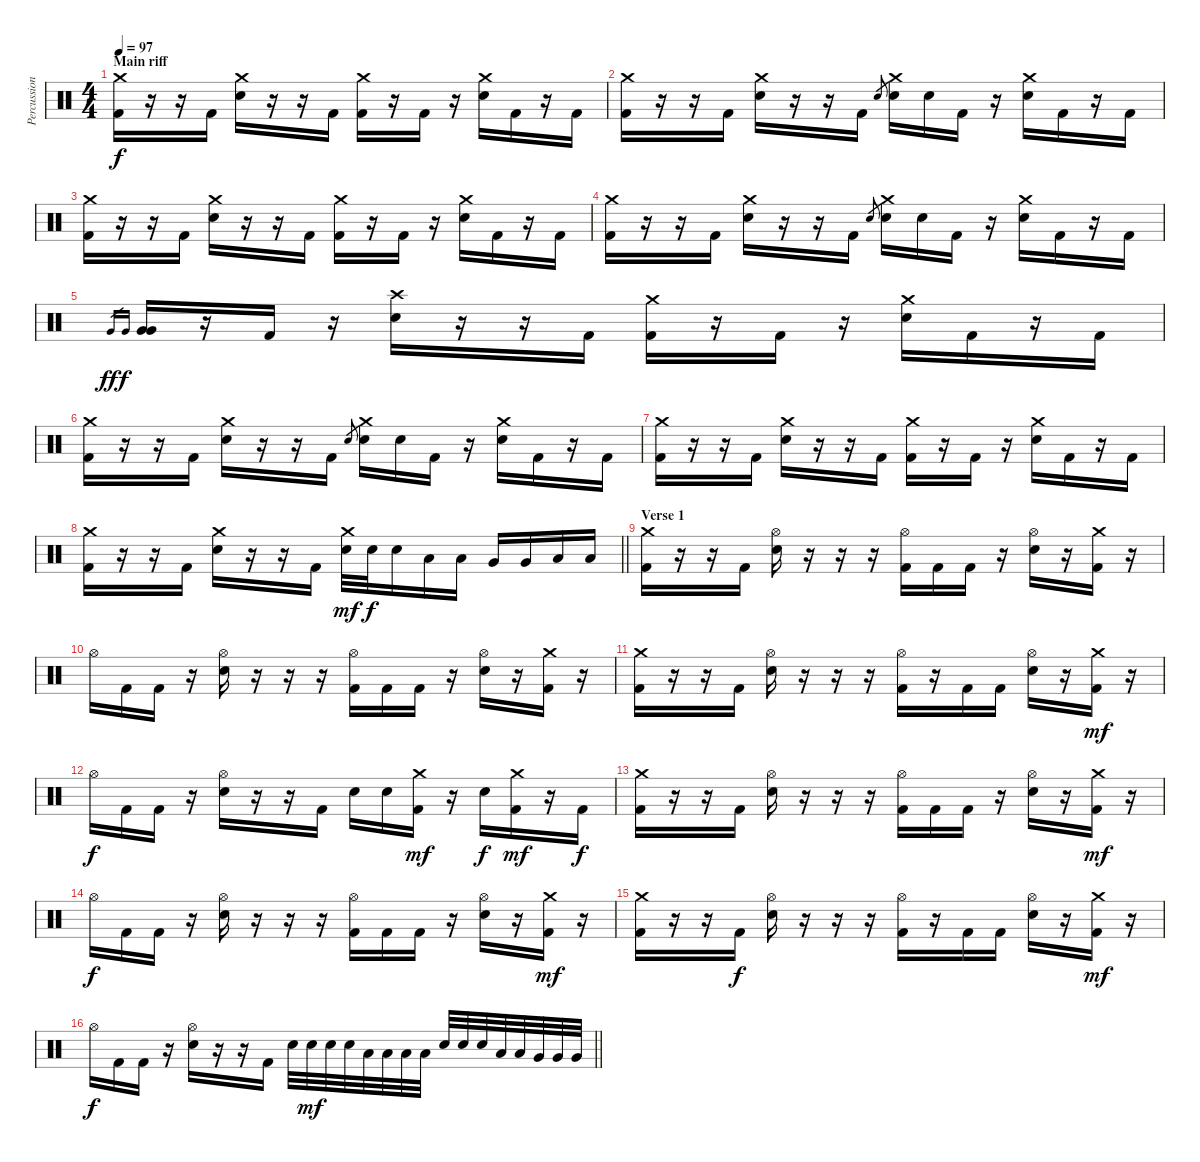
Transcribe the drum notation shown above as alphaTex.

\track ("Percussion" "Percussion") {instrument percussion}
\staff {score}
\articulation defaults
\ts (4 4)
\section ("" "Main riff")
\tempo 97
\clef neutral
\ks c
("Crash medium (hit)" "Kick (hit) 2").16{dy f} r.16 r.16 "Kick (hit) 2".16 ("Crash medium (hit)" "Electric Snare (hit)").16 r.16 r.16 "Kick (hit) 2".16 ("Crash medium (hit)" "Kick (hit) 2").16 r.16 "Kick (hit) 2".16 r.16 ("Crash medium (hit)" "Electric Snare (hit)").16 "Kick (hit) 2".16 r.16 "Kick (hit) 2".16 |
("Crash medium (hit)" "Kick (hit) 2").16 r.16 r.16 "Kick (hit) 2".16 ("Crash medium (hit)" "Electric Snare (hit)").16 r.16 r.16 "Kick (hit) 2".16 "Electric Snare (hit)".8{gr} ("Crash medium (hit)" "Electric Snare (hit)").16 "Electric Snare (hit)".16 "Kick (hit) 2".16 r.16 ("Crash medium (hit)" "Electric Snare (hit)").16 "Kick (hit) 2".16 r.16 "Kick (hit) 2".16 |
("Crash medium (hit)" "Kick (hit) 2").16 r.16 r.16 "Kick (hit) 2".16 ("Crash medium (hit)" "Electric Snare (hit)").16 r.16 r.16 "Kick (hit) 2".16 ("Crash medium (hit)" "Kick (hit) 2").16 r.16 "Kick (hit) 2".16 r.16 ("Crash medium (hit)" "Electric Snare (hit)").16 "Kick (hit) 2".16 r.16 "Kick (hit) 2".16 |
("Crash medium (hit)" "Kick (hit) 2").16 r.16 r.16 "Kick (hit) 2".16 ("Crash medium (hit)" "Electric Snare (hit)").16 r.16 r.16 "Kick (hit) 2".16 "Electric Snare (hit)".8{gr} ("Crash medium (hit)" "Electric Snare (hit)").16 "Electric Snare (hit)".16 "Kick (hit) 2".16 r.16 ("Crash medium (hit)" "Electric Snare (hit)").16 "Kick (hit) 2".16 r.16 "Kick (hit) 2".16 |
"Very Low Tom (hit)".16{gr dy ff} "Very Low Tom (hit)".16{gr dy f} ("Very Low Tom (hit)" "Very Low Tom (hit)").16 r.16 "Kick (hit) 2".16 r.16 ("Crash high (hit)" "Electric Snare (hit)").16 r.16 r.16 "Kick (hit) 2".16 ("Crash medium (hit)" "Kick (hit) 2").16 r.16 "Kick (hit) 2".16 r.16 ("Crash medium (hit)" "Electric Snare (hit)").16 "Kick (hit) 2".16 r.16 "Kick (hit) 2".16 |
("Crash medium (hit)" "Kick (hit) 2").16 r.16 r.16 "Kick (hit) 2".16 ("Crash medium (hit)" "Electric Snare (hit)").16 r.16 r.16 "Kick (hit) 2".16 "Electric Snare (hit)".8{gr} ("Crash medium (hit)" "Electric Snare (hit)").16 "Electric Snare (hit)".16 "Kick (hit) 2".16 r.16 ("Crash medium (hit)" "Electric Snare (hit)").16 "Kick (hit) 2".16 r.16 "Kick (hit) 2".16 |
("Crash medium (hit)" "Kick (hit) 2").16 r.16 r.16 "Kick (hit) 2".16 ("Crash medium (hit)" "Electric Snare (hit)").16 r.16 r.16 "Kick (hit) 2".16 ("Crash medium (hit)" "Kick (hit) 2").16 r.16 "Kick (hit) 2".16 r.16 ("Crash medium (hit)" "Electric Snare (hit)").16 "Kick (hit) 2".16 r.16 "Kick (hit) 2".16 |
\barLineRight lightlight
("Crash medium (hit)" "Kick (hit) 2").16 r.16 r.16 "Kick (hit) 2".16 ("Crash medium (hit)" "Electric Snare (hit)").16 r.16 r.16 "Kick (hit) 2".16 ("Crash medium (hit)" "Electric Snare (hit)").32{dy mf} "Electric Snare (hit)".32{dy f} "Electric Snare (hit)".16 "Low Tom (hit)".16 "Low Tom (hit)".16 "Very Low Tom (hit)".16 "Very Low Tom (hit)".16 "Low Floor Tom (hit)".16 "Low Floor Tom (hit)".16 |
\section ("" "Verse 1")
("Crash medium (hit)" "Kick (hit) 2").16 r.16 r.16 "Kick (hit) 2".16 ("Hi-Hat (open)" "Electric Snare (hit)").16 r.16 r.16 r.16 ("Hi-Hat (open)" "Kick (hit) 2").16 "Kick (hit) 2".16 "Kick (hit) 2".16 r.16 ("Hi-Hat (open)" "Electric Snare (hit)").16 r.16 ("Crash medium (hit)" "Kick (hit) 2").16 r.16 |
"Hi-Hat (open)".16 "Kick (hit) 2".16 "Kick (hit) 2".16 r.16 ("Hi-Hat (open)" "Electric Snare (hit)").16 r.16 r.16 r.16 ("Hi-Hat (open)" "Kick (hit) 2").16 "Kick (hit) 2".16 "Kick (hit) 2".16 r.16 ("Hi-Hat (open)" "Electric Snare (hit)").16 r.16 ("Crash medium (hit)" "Kick (hit) 2").16 r.16 |
("Crash medium (hit)" "Kick (hit) 2").16 r.16 r.16 "Kick (hit) 2".16 ("Hi-Hat (open)" "Electric Snare (hit)").16 r.16 r.16 r.16 ("Hi-Hat (open)" "Kick (hit) 2").16 r.16 "Kick (hit) 2".16 "Kick (hit) 2".16 ("Hi-Hat (open)" "Electric Snare (hit)").16 r.16 ("Crash medium (hit)" "Kick (hit) 2").16{dy mf} r.16 |
"Hi-Hat (open)".16{dy f} "Kick (hit) 2".16 "Kick (hit) 2".16 r.16 ("Hi-Hat (open)" "Electric Snare (hit)").16 r.16 r.16 "Kick (hit) 2".16 "Electric Snare (hit)".16 "Electric Snare (hit)".16 ("Crash medium (hit)" "Kick (hit) 2").16{dy mf} r.16 "Electric Snare (hit)".16{dy f} ("Crash medium (hit)" "Kick (hit) 2").16{dy mf} r.16 "Kick (hit) 2".16{dy f} |
("Crash medium (hit)" "Kick (hit) 2").16 r.16 r.16 "Kick (hit) 2".16 ("Hi-Hat (open)" "Electric Snare (hit)").16 r.16 r.16 r.16 ("Hi-Hat (open)" "Kick (hit) 2").16 "Kick (hit) 2".16 "Kick (hit) 2".16 r.16 ("Hi-Hat (open)" "Electric Snare (hit)").16 r.16 ("Crash medium (hit)" "Kick (hit) 2").16{dy mf} r.16 |
"Hi-Hat (open)".16{dy f} "Kick (hit) 2".16 "Kick (hit) 2".16 r.16 ("Hi-Hat (open)" "Electric Snare (hit)").16 r.16 r.16 r.16 ("Hi-Hat (open)" "Kick (hit) 2").16 "Kick (hit) 2".16 "Kick (hit) 2".16 r.16 ("Hi-Hat (open)" "Electric Snare (hit)").16 r.16 ("Crash medium (hit)" "Kick (hit) 2").16{dy mf} r.16 |
("Crash medium (hit)" "Kick (hit) 2").16 r.16 r.16 "Kick (hit) 2".16{dy f} ("Hi-Hat (open)" "Electric Snare (hit)").16 r.16 r.16 r.16 ("Hi-Hat (open)" "Kick (hit) 2").16 r.16 "Kick (hit) 2".16 "Kick (hit) 2".16 ("Hi-Hat (open)" "Electric Snare (hit)").16 r.16 ("Crash medium (hit)" "Kick (hit) 2").16{dy mf} r.16 |
\barLineRight lightlight "Hi-Hat (open)".16{dy f} "Kick (hit) 2".16 "Kick (hit) 2".16
r.16 ("Hi-Hat (open)" "Electric Snare (hit)").16 r.16 r.16 "Kick (hit) 2".16 "Electric Snare (hit)".32 "Electric Snare (hit)".32{dy mf} "Electric Snare (hit)".32 "Electric Snare (hit)".32 "Low Tom (hit)".32 "Low Tom (hit)".32 "Low Tom (hit)".32 "Low Tom (hit)".32 "Electric Snare (hit)".32 "Electric Snare (hit)".32 "Electric Snare (hit)".32 "Low Tom (hit)".32 "Low Tom (hit)".32 "Very Low Tom (hit)".32 "Very Low Tom (hit)".32 "Very Low Tom (hit)".32
